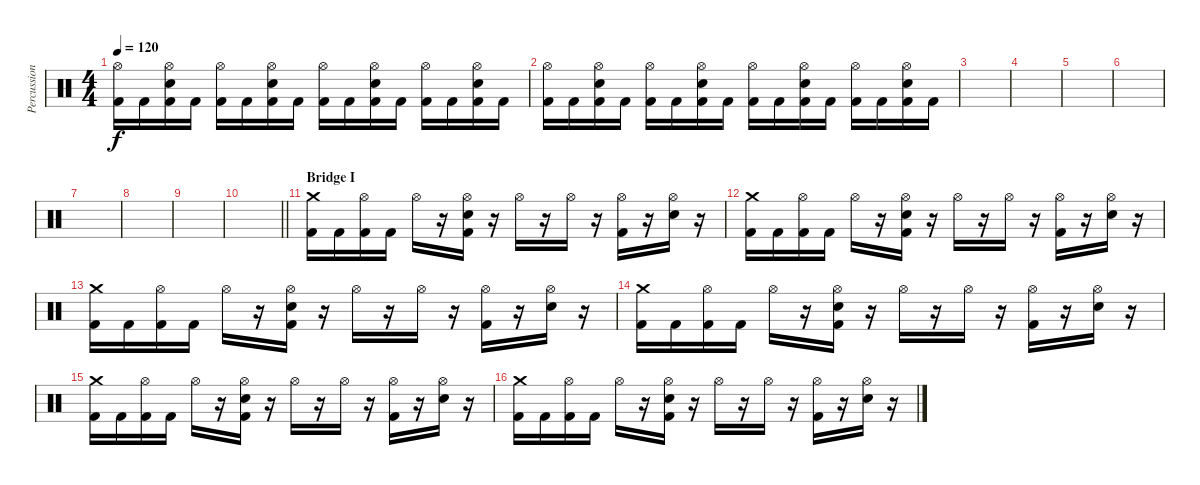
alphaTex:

\track ("Percussion" "Percussion") {instrument percussion}
\staff {score}
\articulation defaults
\ts (4 4)
\tempo 120
\clef neutral
\ks c
("Hi-Hat (open)" "Kick (hit) 2").16{dy f} "Kick (hit) 2".16 ("Hi-Hat (open)" "Electric Snare (hit)" "Kick (hit) 2").16 "Kick (hit) 2".16 ("Hi-Hat (open)" "Kick (hit) 2").16 "Kick (hit) 2".16 ("Hi-Hat (open)" "Electric Snare (hit)" "Kick (hit) 2").16 "Kick (hit) 2".16 ("Hi-Hat (open)" "Kick (hit) 2").16 "Kick (hit) 2".16 ("Hi-Hat (open)" "Electric Snare (hit)" "Kick (hit) 2").16 "Kick (hit) 2".16 ("Hi-Hat (open)" "Kick (hit) 2").16 "Kick (hit) 2".16 ("Hi-Hat (open)" "Electric Snare (hit)" "Kick (hit) 2").16 "Kick (hit) 2".16 |
("Hi-Hat (open)" "Kick (hit) 2").16 "Kick (hit) 2".16 ("Hi-Hat (open)" "Electric Snare (hit)" "Kick (hit) 2").16 "Kick (hit) 2".16 ("Hi-Hat (open)" "Kick (hit) 2").16 "Kick (hit) 2".16 ("Hi-Hat (open)" "Electric Snare (hit)" "Kick (hit) 2").16 "Kick (hit) 2".16 ("Hi-Hat (open)" "Kick (hit) 2").16 "Kick (hit) 2".16 ("Hi-Hat (open)" "Electric Snare (hit)" "Kick (hit) 2").16 "Kick (hit) 2".16 ("Hi-Hat (open)" "Kick (hit) 2").16 "Kick (hit) 2".16 ("Hi-Hat (open)" "Electric Snare (hit)" "Kick (hit) 2").16 "Kick (hit) 2".16 |
|
|
|
|
|
|
|
\barLineRight lightlight
|
\section ("" "Bridge I")
("Crash medium (hit)" "Kick (hit) 2").16 "Kick (hit) 2".16 ("Hi-Hat (open)" "Kick (hit) 2").16 "Kick (hit) 2".16 "Hi-Hat (open)".16 r.16 ("Hi-Hat (open)" "Electric Snare (hit)" "Kick (hit) 2").16 r.16 "Hi-Hat (open)".16 r.16 "Hi-Hat (open)".16 r.16 ("Hi-Hat (open)" "Kick (hit) 2").16 r.16 ("Hi-Hat (open)" "Electric Snare (hit)").16 r.16 |
("Crash medium (hit)" "Kick (hit) 2").16 "Kick (hit) 2".16 ("Hi-Hat (open)" "Kick (hit) 2").16 "Kick (hit) 2".16 "Hi-Hat (open)".16 r.16 ("Hi-Hat (open)" "Electric Snare (hit)" "Kick (hit) 2").16 r.16 "Hi-Hat (open)".16 r.16 "Hi-Hat (open)".16 r.16 ("Hi-Hat (open)" "Kick (hit) 2").16 r.16 ("Hi-Hat (open)" "Electric Snare (hit)").16 r.16 |
("Crash medium (hit)" "Kick (hit) 2").16 "Kick (hit) 2".16 ("Hi-Hat (open)" "Kick (hit) 2").16 "Kick (hit) 2".16 "Hi-Hat (open)".16 r.16 ("Hi-Hat (open)" "Electric Snare (hit)" "Kick (hit) 2").16 r.16 "Hi-Hat (open)".16 r.16 "Hi-Hat (open)".16 r.16 ("Hi-Hat (open)" "Kick (hit) 2").16 r.16 ("Hi-Hat (open)" "Electric Snare (hit)").16 r.16 |
("Crash medium (hit)" "Kick (hit) 2").16 "Kick (hit) 2".16 ("Hi-Hat (open)" "Kick (hit) 2").16 "Kick (hit) 2".16 "Hi-Hat (open)".16 r.16 ("Hi-Hat (open)" "Electric Snare (hit)" "Kick (hit) 2").16 r.16 "Hi-Hat (open)".16 r.16 "Hi-Hat (open)".16 r.16 ("Hi-Hat (open)" "Kick (hit) 2").16 r.16 ("Hi-Hat (open)" "Electric Snare (hit)").16 r.16 |
("Crash medium (hit)" "Kick (hit) 2").16 "Kick (hit) 2".16 ("Hi-Hat (open)" "Kick (hit) 2").16 "Kick (hit) 2".16 "Hi-Hat (open)".16 r.16 ("Hi-Hat (open)" "Electric Snare (hit)" "Kick (hit) 2").16 r.16 "Hi-Hat (open)".16 r.16 "Hi-Hat (open)".16 r.16 ("Hi-Hat (open)" "Kick (hit) 2").16 r.16 ("Hi-Hat (open)" "Electric Snare (hit)").16 r.16 |
("Crash medium (hit)" "Kick (hit) 2").16 "Kick (hit) 2".16 ("Hi-Hat (open)" "Kick (hit) 2").16 "Kick (hit) 2".16 "Hi-Hat (open)".16 r.16 ("Hi-Hat (open)" "Electric Snare (hit)" "Kick (hit) 2").16 r.16 "Hi-Hat (open)".16 r.16 "Hi-Hat (open)".16 r.16 ("Hi-Hat (open)" "Kick (hit) 2").16 r.16 ("Hi-Hat (open)" "Electric Snare (hit)").16 r.16
